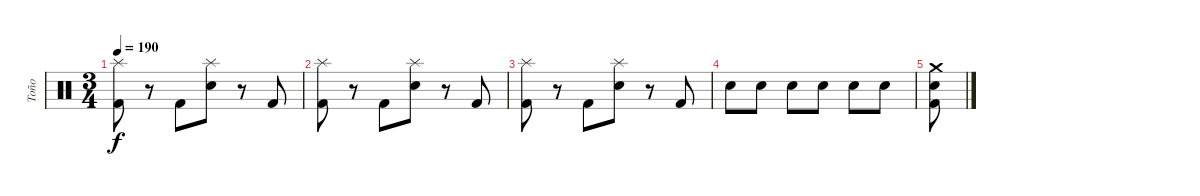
\track ("Toño" "Toño") {instrument percussion}
\staff {score}
\articulation defaults
\ts (3 4)
\tempo 190
\clef neutral
\ks c
("Splash (hit)" "Kick (hit) 2").8{dy f} r.8 "Kick (hit) 2".8 ("Splash (hit)" "Electric Snare (hit)").8 r.8 "Kick (hit) 2".8 |
("Splash (hit)" "Kick (hit) 2").8 r.8 "Kick (hit) 2".8 ("Splash (hit)" "Electric Snare (hit)").8 r.8 "Kick (hit) 2".8 |
("Splash (hit)" "Kick (hit) 2").8 r.8 "Kick (hit) 2".8 ("Splash (hit)" "Electric Snare (hit)").8 r.8 "Kick (hit) 2".8 |
"Electric Snare (hit)".8 "Electric Snare (hit)".8 "Electric Snare (hit)".8 "Electric Snare (hit)".8 "Electric Snare (hit)".8 "Electric Snare (hit)".8 |
("Crash medium (hit)" "Electric Snare (hit)" "Kick (hit) 2").8
